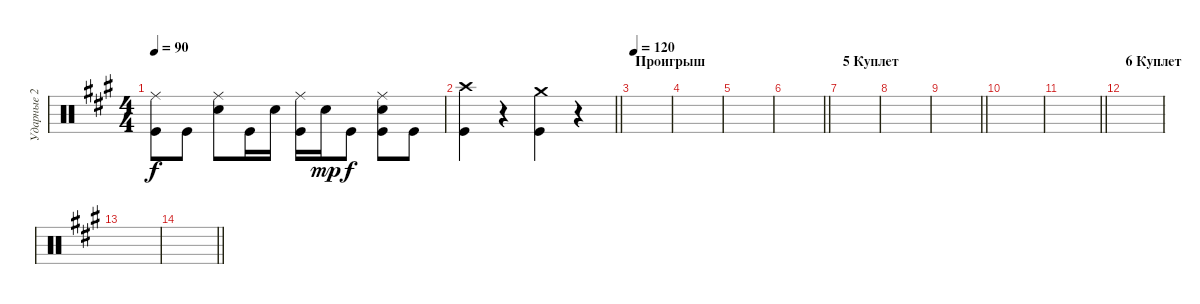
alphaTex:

\track ("Ударные 2" "Ударные 2") {instrument percussion}
\staff {score}
\articulation defaults
\ts (4 4)
\tempo 90
\clef neutral
\ks f#minor
("Ride (middle)" "Kick (hit)").8{dy f} "Kick (hit)".8 ("Ride (middle)" "Snare (hit) 2").8 "Kick (hit)".16 "Snare (hit) 2".16 ("Ride (middle)" "Kick (hit)").16 "Snare (hit) 2".16{dy mp} "Kick (hit)".8{dy f} ("Ride (middle)" "Snare (hit) 2" "Kick (hit)").8 "Kick (hit)".8 |
\barLineRight lightlight
("Crash high (hit)" "Kick (hit)").4 r.4 ("Crash medium (hit)" "Kick (hit)").4 r.4 |
\section ("" "Проигрыш")
\tempo 120
|
|
|
\barLineRight lightlight
|
\section ("" "5 Куплет")
|
|
\barLineRight lightlight
|
|
\barLineRight lightlight
|
\section ("" "6 Куплет")
|
|
\barLineRight lightlight
